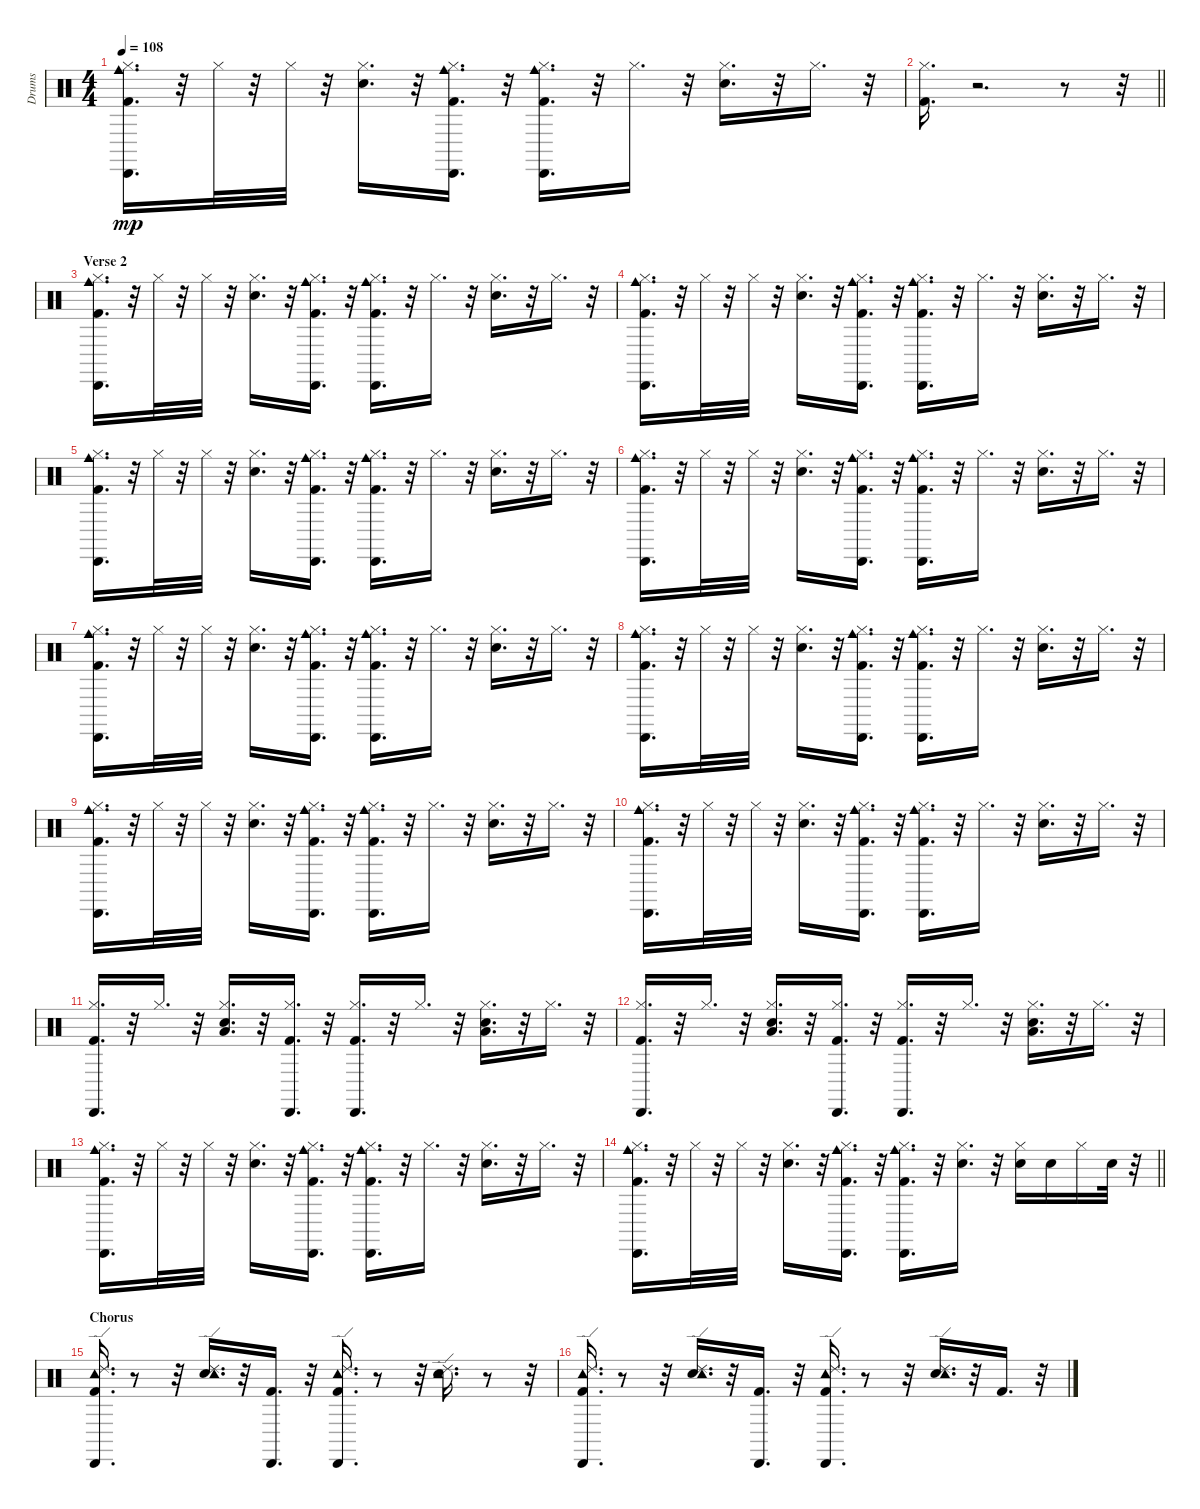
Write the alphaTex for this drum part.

\track ("Drums" "Drums") {instrument percussion}
\staff {score}
\articulation defaults
\ts (4 4)
\tempo 108
\clef neutral
\ks c
("Kick (hit) 2" "Hi-Hat (closed)" "Cabasa (hit)" "Cowbell medium (hit)").16{d dy mp} r.32 "Hi-Hat (closed)".32 r.32 "Hi-Hat (closed)".32 r.32 ("Snare (hit) 2" "Hi-Hat (closed)").16{d} r.32 ("Kick (hit) 2" "Hi-Hat (closed)" "Cabasa (hit)" "Cowbell medium (hit)").16{d} r.32 ("Kick (hit) 2" "Hi-Hat (closed)" "Cabasa (hit)" "Cowbell medium (hit)").16{d} r.32 "Hi-Hat (closed)".16{d} r.32 ("Snare (hit) 2" "Hi-Hat (closed)").16{d} r.32 "Hi-Hat (closed)".16{d} r.32 |
\barLineRight lightlight
("Kick (hit) 2" "Hi-Hat (closed)").16{d} r.2{d} r.8 r.32 |
\section ("" "Verse 2")
("Kick (hit) 2" "Hi-Hat (closed)" "Cabasa (hit)" "Cowbell medium (hit)").16{d} r.32 "Hi-Hat (closed)".32 r.32 "Hi-Hat (closed)".32 r.32 ("Snare (hit) 2" "Hi-Hat (closed)").16{d} r.32 ("Kick (hit) 2" "Hi-Hat (closed)" "Cabasa (hit)" "Cowbell medium (hit)").16{d} r.32 ("Kick (hit) 2" "Hi-Hat (closed)" "Cabasa (hit)" "Cowbell medium (hit)").16{d} r.32 "Hi-Hat (closed)".16{d} r.32 ("Snare (hit) 2" "Hi-Hat (closed)").16{d} r.32 "Hi-Hat (closed)".16{d} r.32 |
("Kick (hit) 2" "Hi-Hat (closed)" "Cabasa (hit)" "Cowbell medium (hit)").16{d} r.32 "Hi-Hat (closed)".32 r.32 "Hi-Hat (closed)".32 r.32 ("Snare (hit) 2" "Hi-Hat (closed)").16{d} r.32 ("Kick (hit) 2" "Hi-Hat (closed)" "Cabasa (hit)" "Cowbell medium (hit)").16{d} r.32 ("Kick (hit) 2" "Hi-Hat (closed)" "Cabasa (hit)" "Cowbell medium (hit)").16{d} r.32 "Hi-Hat (closed)".16{d} r.32 ("Snare (hit) 2" "Hi-Hat (closed)").16{d} r.32 "Hi-Hat (closed)".16{d} r.32 |
("Kick (hit) 2" "Hi-Hat (closed)" "Cabasa (hit)" "Cowbell medium (hit)").16{d} r.32 "Hi-Hat (closed)".32 r.32 "Hi-Hat (closed)".32 r.32 ("Snare (hit) 2" "Hi-Hat (closed)").16{d} r.32 ("Kick (hit) 2" "Hi-Hat (closed)" "Cabasa (hit)" "Cowbell medium (hit)").16{d} r.32 ("Kick (hit) 2" "Hi-Hat (closed)" "Cabasa (hit)" "Cowbell medium (hit)").16{d} r.32 "Hi-Hat (closed)".16{d} r.32 ("Snare (hit) 2" "Hi-Hat (closed)").16{d} r.32 "Hi-Hat (closed)".16{d} r.32 |
("Kick (hit) 2" "Hi-Hat (closed)" "Cabasa (hit)" "Cowbell medium (hit)").16{d} r.32 "Hi-Hat (closed)".32 r.32 "Hi-Hat (closed)".32 r.32 ("Snare (hit) 2" "Hi-Hat (closed)").16{d} r.32 ("Kick (hit) 2" "Hi-Hat (closed)" "Cabasa (hit)" "Cowbell medium (hit)").16{d} r.32 ("Kick (hit) 2" "Hi-Hat (closed)" "Cabasa (hit)" "Cowbell medium (hit)").16{d} r.32 "Hi-Hat (closed)".16{d} r.32 ("Snare (hit) 2" "Hi-Hat (closed)").16{d} r.32 "Hi-Hat (closed)".16{d} r.32 |
("Kick (hit) 2" "Hi-Hat (closed)" "Cabasa (hit)" "Cowbell medium (hit)").16{d} r.32 "Hi-Hat (closed)".32 r.32 "Hi-Hat (closed)".32 r.32 ("Snare (hit) 2" "Hi-Hat (closed)").16{d} r.32 ("Kick (hit) 2" "Hi-Hat (closed)" "Cabasa (hit)" "Cowbell medium (hit)").16{d} r.32 ("Kick (hit) 2" "Hi-Hat (closed)" "Cabasa (hit)" "Cowbell medium (hit)").16{d} r.32 "Hi-Hat (closed)".16{d} r.32 ("Snare (hit) 2" "Hi-Hat (closed)").16{d} r.32 "Hi-Hat (closed)".16{d} r.32 |
("Kick (hit) 2" "Hi-Hat (closed)" "Cabasa (hit)" "Cowbell medium (hit)").16{d} r.32 "Hi-Hat (closed)".32 r.32 "Hi-Hat (closed)".32 r.32 ("Snare (hit) 2" "Hi-Hat (closed)").16{d} r.32 ("Kick (hit) 2" "Hi-Hat (closed)" "Cabasa (hit)" "Cowbell medium (hit)").16{d} r.32 ("Kick (hit) 2" "Hi-Hat (closed)" "Cabasa (hit)" "Cowbell medium (hit)").16{d} r.32 "Hi-Hat (closed)".16{d} r.32 ("Snare (hit) 2" "Hi-Hat (closed)").16{d} r.32 "Hi-Hat (closed)".16{d} r.32 |
("Kick (hit) 2" "Hi-Hat (closed)" "Cabasa (hit)" "Cowbell medium (hit)").16{d} r.32 "Hi-Hat (closed)".32 r.32 "Hi-Hat (closed)".32 r.32 ("Snare (hit) 2" "Hi-Hat (closed)").16{d} r.32 ("Kick (hit) 2" "Hi-Hat (closed)" "Cabasa (hit)" "Cowbell medium (hit)").16{d} r.32 ("Kick (hit) 2" "Hi-Hat (closed)" "Cabasa (hit)" "Cowbell medium (hit)").16{d} r.32 "Hi-Hat (closed)".16{d} r.32 ("Snare (hit) 2" "Hi-Hat (closed)").16{d} r.32 "Hi-Hat (closed)".16{d} r.32 |
("Kick (hit) 2" "Hi-Hat (closed)" "Cabasa (hit)" "Cowbell medium (hit)").16{d} r.32 "Hi-Hat (closed)".32 r.32 "Hi-Hat (closed)".32 r.32 ("Snare (hit) 2" "Hi-Hat (closed)").16{d} r.32 ("Kick (hit) 2" "Hi-Hat (closed)" "Cabasa (hit)" "Cowbell medium (hit)").16{d} r.32 ("Kick (hit) 2" "Hi-Hat (closed)" "Cabasa (hit)" "Cowbell medium (hit)").16{d} r.32 "Hi-Hat (closed)".16{d} r.32 ("Snare (hit) 2" "Hi-Hat (closed)").16{d} r.32 "Hi-Hat (closed)".16{d} r.32 |
("Hi-Hat (closed)" "Kick (hit) 2" "Cabasa (hit)").16{d} r.32 "Hi-Hat (closed)".16{d} r.32 ("Hi-Hat (closed)" "Snare (hit) 2" "Low Tom (hit)").16{d} r.32 ("Hi-Hat (closed)" "Kick (hit) 2" "Cabasa (hit)").16{d} r.32 ("Hi-Hat (closed)" "Kick (hit) 2" "Cabasa (hit)").16{d} r.32 "Hi-Hat (closed)".16{d} r.32 ("Hi-Hat (closed)" "Snare (hit) 2" "Low Tom (hit)").16{d} r.32 "Hi-Hat (closed)".16{d} r.32 |
("Hi-Hat (closed)" "Kick (hit) 2" "Cabasa (hit)").16{d} r.32 "Hi-Hat (closed)".16{d} r.32 ("Hi-Hat (closed)" "Snare (hit) 2" "Low Tom (hit)").16{d} r.32 ("Hi-Hat (closed)" "Kick (hit) 2" "Cabasa (hit)").16{d} r.32 ("Hi-Hat (closed)" "Kick (hit) 2" "Cabasa (hit)").16{d} r.32 "Hi-Hat (closed)".16{d} r.32 ("Hi-Hat (closed)" "Snare (hit) 2" "Low Tom (hit)").16{d} r.32 "Hi-Hat (closed)".16{d} r.32 |
("Kick (hit) 2" "Hi-Hat (closed)" "Cabasa (hit)" "Cowbell medium (hit)").16{d} r.32 "Hi-Hat (closed)".32 r.32 "Hi-Hat (closed)".32 r.32 ("Snare (hit) 2" "Hi-Hat (closed)").16{d} r.32 ("Kick (hit) 2" "Hi-Hat (closed)" "Cabasa (hit)" "Cowbell medium (hit)").16{d} r.32 ("Kick (hit) 2" "Hi-Hat (closed)" "Cabasa (hit)" "Cowbell medium (hit)").16{d} r.32 "Hi-Hat (closed)".16{d} r.32 ("Snare (hit) 2" "Hi-Hat (closed)").16{d} r.32 "Hi-Hat (closed)".16{d} r.32 |
\barLineRight lightlight
("Kick (hit) 2" "Hi-Hat (closed)" "Cowbell medium (hit)" "Cabasa (hit)").16{d} r.32 "Hi-Hat (closed)".32 r.32 "Hi-Hat (closed)".32 r.32 ("Hi-Hat (closed)" "Snare (hit) 2").16{d} r.32 ("Hi-Hat (closed)" "Kick (hit) 2" "Cowbell medium (hit)" "Cabasa (hit)").16{d} r.32 ("Hi-Hat (closed)" "Kick (hit) 2" "Cowbell medium (hit)" "Cabasa (hit)").16{d} r.32 ("Hi-Hat (closed)" "Snare (hit) 2").16{d} r.32 ("Hi-Hat (closed)" "Snare (hit) 2").16 "Snare (hit) 2".16 "Hi-Hat (closed)".16 "Snare (hit) 2".32 r.32 |
\section ("" "Chorus")
("Ride (edge) 2" "Kick (hit) 2" "Tambourine (hit)" "Cabasa (hit)").16{d} r.8 r.32 ("Ride (edge) 2" "Snare (hit) 2" "Tambourine (hit)").16{d} r.32 ("Kick (hit) 2" "Cabasa (hit)").16{d} r.32 ("Ride (edge) 2" "Kick (hit) 2" "Tambourine (hit)" "Cabasa (hit)").16{d} r.8 r.32 ("Ride (edge) 2" "Snare (hit) 2" "Tambourine (hit)").16{d} r.8 r.32 |
("Ride (edge) 2" "Kick (hit) 2" "Tambourine (hit)" "Cabasa (hit)").16{d} r.8 r.32 ("Ride (edge) 2" "Snare (hit) 2" "Tambourine (hit)").16{d} r.32 ("Kick (hit) 2" "Cabasa (hit)").16{d} r.32 ("Ride (edge) 2" "Kick (hit) 2" "Tambourine (hit)" "Cabasa (hit)").16{d} r.8 r.32 ("Ride (edge) 2" "Snare (hit) 2" "Tambourine (hit)").16{d} r.32 "Kick (hit) 2".16{d} r.32
